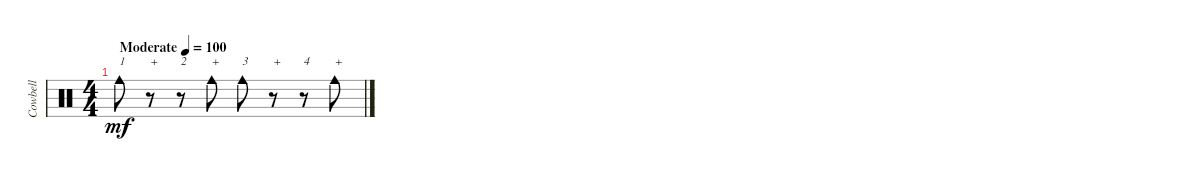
\track ("Cowbell" "Cowbell") {instrument percussion}
\staff {score}
\articulation defaults
\ts (4 4)
\tempo (100 "Moderate")
\clef neutral
\ks c "Cowbell medium (hit)".8{txt "1" dy mf}
r.8{txt "+"} r.8{txt "2"} "Cowbell medium (hit)".8{txt "+"} "Cowbell medium (hit)".8{txt "3"} r.8{txt "+"} r.8{txt "4"} "Cowbell medium (hit)".8{txt "+"}
